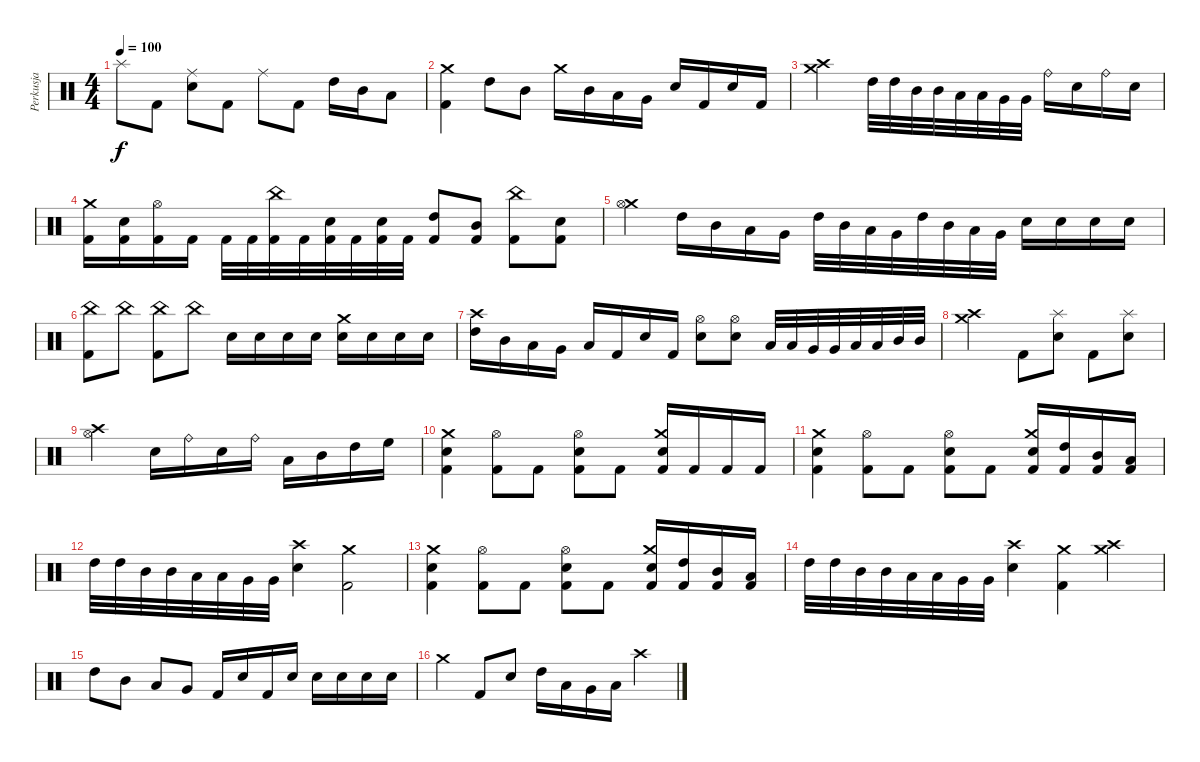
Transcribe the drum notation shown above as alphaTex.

\track ("Perkusja" "Perkusja") {instrument percussion}
\staff {score}
\articulation defaults
\ts (4 4)
\tempo 100
\clef neutral
\ks c "Splash (hit)".8{dy f} "Kick (hit) 2".8
("Ride (middle)" "Snare (hit) 2").8 "Kick (hit) 2".8 "Ride (middle)".8 "Kick (hit) 2".8 "High Tom (hit)".16 "Mid Tom (hit)".16 "Low Tom (hit)".8 |
("Crash medium (hit)" "Kick (hit) 2").4 "High Tom (hit)".8 "Mid Tom (hit)".8 "Crash medium (hit)".16 "Mid Tom (hit)".16 "Low Tom (hit)".16 "Very Low Tom (hit)".16 "Snare (hit) 2".16 "Kick (hit) 2".16 "Snare (hit) 2".16 "Kick (hit) 2".16 |
("Crash high (hit)" "Crash medium (hit)").2 "High Tom (hit)".32 "High Tom (hit)".32 "Mid Tom (hit)".32 "Mid Tom (hit)".32 "Low Tom (hit)".32 "Low Tom (hit)".32 "Very Low Tom (hit)".32 "Very Low Tom (hit)".32 "Ride (bell)".16 "Electric Snare (hit)".16 "Ride (bell)".16 "Electric Snare (hit)".16 |
("Crash medium (hit)" "Kick (hit) 2").16 ("Electric Snare (hit)" "Kick (hit) 2").16 ("Hi-Hat (open)" "Kick (hit) 2").16 "Kick (hit) 2".16 "Kick (hit) 2".32 "Kick (hit) 2".32 ("China (hit)" "Kick (hit) 2").32 "Kick (hit) 2".32 ("Electric Snare (hit)" "Kick (hit) 2").32 "Kick (hit) 2".32 ("Electric Snare (hit)" "Kick (hit) 2").32 "Kick (hit) 2".32 ("High Tom (hit)" "Kick (hit) 2").8 ("Mid Tom (hit)" "Kick (hit) 2").8 ("China (hit)" "Kick (hit) 2").8 ("Snare (hit) 2" "Kick (hit) 2").8 |
("Crash medium (hit)" "Hi-Hat (open)").4 "High Tom (hit)".16 "Mid Tom (hit)".16 "Low Tom (hit)".16 "Very Low Tom (hit)".16 "High Tom (hit)".32 "Mid Tom (hit)".32 "Low Tom (hit)".32 "Very Low Tom (hit)".32 "High Tom (hit)".32 "Mid Tom (hit)".32 "Low Tom (hit)".32 "Very Low Tom (hit)".32 "Electric Snare (hit)".16 "Electric Snare (hit)".16 "Electric Snare (hit)".16 "Electric Snare (hit)".16 |
("China (hit)" "Kick (hit) 2").8 "China (hit)".8 ("China (hit)" "Kick (hit) 2").8 "China (hit)".8 "Electric Snare (hit)".16 "Snare (hit) 2".16 "Electric Snare (hit)".16 "Snare (hit) 2".16 ("Crash medium (hit)" "Electric Snare (hit)").16 "Electric Snare (hit)".16 "Electric Snare (hit)".16 "Electric Snare (hit)".16 |
("Crash high (hit)" "High Tom (hit)").16 "Mid Tom (hit)".16 "Low Tom (hit)".16 "Very Low Tom (hit)".16 "Low Floor Tom (hit)".16 "Kick (hit) 2".16 "Electric Snare (hit)".16 "Kick (hit) 2".16 ("Hi-Hat (open)" "Electric Snare (hit)").8 ("Hi-Hat (open)" "Electric Snare (hit)").8 "Low Floor Tom (hit)".32 "Low Floor Tom (hit)".32 "Very Low Tom (hit)".32 "Very Low Tom (hit)".32 "Low Tom (hit)".32 "Low Tom (hit)".32 "Mid Tom (hit)".32 "Mid Tom (hit)".32 |
("Crash medium (hit)" "Crash high (hit)").2 "Kick (hit) 2".8 ("Splash (hit)" "Electric Snare (hit)").8 "Kick (hit) 2".8 ("Splash (hit)" "Electric Snare (hit)").8 |
("Crash high (hit)" "Hi-Hat (open)").2 "Electric Snare (hit)".16 "Ride (bell)".16 "Electric Snare (hit)".16 "Ride (bell)".16 "Low Tom (hit)".16 "Mid Tom (hit)".16 "High Tom (hit)".16 "High Floor Tom (hit)".16 |
("Crash medium (hit)" "Kick (hit) 2" "Snare (hit) 2").4 ("Hi-Hat (open)" "Kick (hit) 2").8 "Kick (hit) 2".8 ("Hi-Hat (open)" "Electric Snare (hit)" "Kick (hit) 2").8 "Kick (hit) 2".8 ("Crash medium (hit)" "Electric Snare (hit)" "Kick (hit) 2").16 "Kick (hit) 2".16 "Kick (hit) 2".16 "Kick (hit) 2".16 |
("Crash medium (hit)" "Kick (hit) 2" "Snare (hit) 2").4 ("Hi-Hat (open)" "Kick (hit) 2").8 "Kick (hit) 2".8 ("Hi-Hat (open)" "Electric Snare (hit)" "Kick (hit) 2").8 "Kick (hit) 2".8 ("Crash medium (hit)" "Electric Snare (hit)" "Kick (hit) 2").16 ("High Tom (hit)" "Kick (hit) 2").16 ("Mid Tom (hit)" "Kick (hit) 2").16 ("Low Tom (hit)" "Kick (hit) 2").16 |
"High Tom (hit)".32 "High Tom (hit)".32 "Mid Tom (hit)".32 "Mid Tom (hit)".32 "Low Tom (hit)".32 "Low Tom (hit)".32 "Very Low Tom (hit)".32 "Very Low Tom (hit)".32 ("Crash high (hit)" "Snare (hit) 2").4 ("Crash medium (hit)" "Kick (hit) 2").2 |
("Crash medium (hit)" "Kick (hit) 2" "Snare (hit) 2").4 ("Hi-Hat (open)" "Kick (hit) 2").8 "Kick (hit) 2".8 ("Hi-Hat (open)" "Electric Snare (hit)" "Kick (hit) 2").8 "Kick (hit) 2".8 ("Crash medium (hit)" "Electric Snare (hit)" "Kick (hit) 2").16 ("High Tom (hit)" "Kick (hit) 2").16 ("Mid Tom (hit)" "Kick (hit) 2").16 ("Low Tom (hit)" "Kick (hit) 2").16 |
"High Tom (hit)".32 "High Tom (hit)".32 "Mid Tom (hit)".32 "Mid Tom (hit)".32 "Low Tom (hit)".32 "Low Tom (hit)".32 "Very Low Tom (hit)".32 "Very Low Tom (hit)".32 ("Crash high (hit)" "Snare (hit) 2").4 ("Crash medium (hit)" "Kick (hit) 2").4 ("Crash high (hit)" "Crash medium (hit)").4 |
"High Tom (hit)".8 "Mid Tom (hit)".8 "Low Tom (hit)".8 "Very Low Tom (hit)".8 "Kick (hit) 2".16 "Electric Snare (hit)".16 "Kick (hit) 2".16 "Electric Snare (hit)".16 "Electric Snare (hit)".16 "Electric Snare (hit)".16 "Electric Snare (hit)".16 "Electric Snare (hit)".16 |
"Crash medium (hit)".4 "Kick (hit) 2".8 "Electric Snare (hit)".8 "High Tom (hit)".16 "Low Tom (hit)".16 "Very Low Tom (hit)".16 "Low Floor Tom (hit)".16 "Crash high (hit)".4
